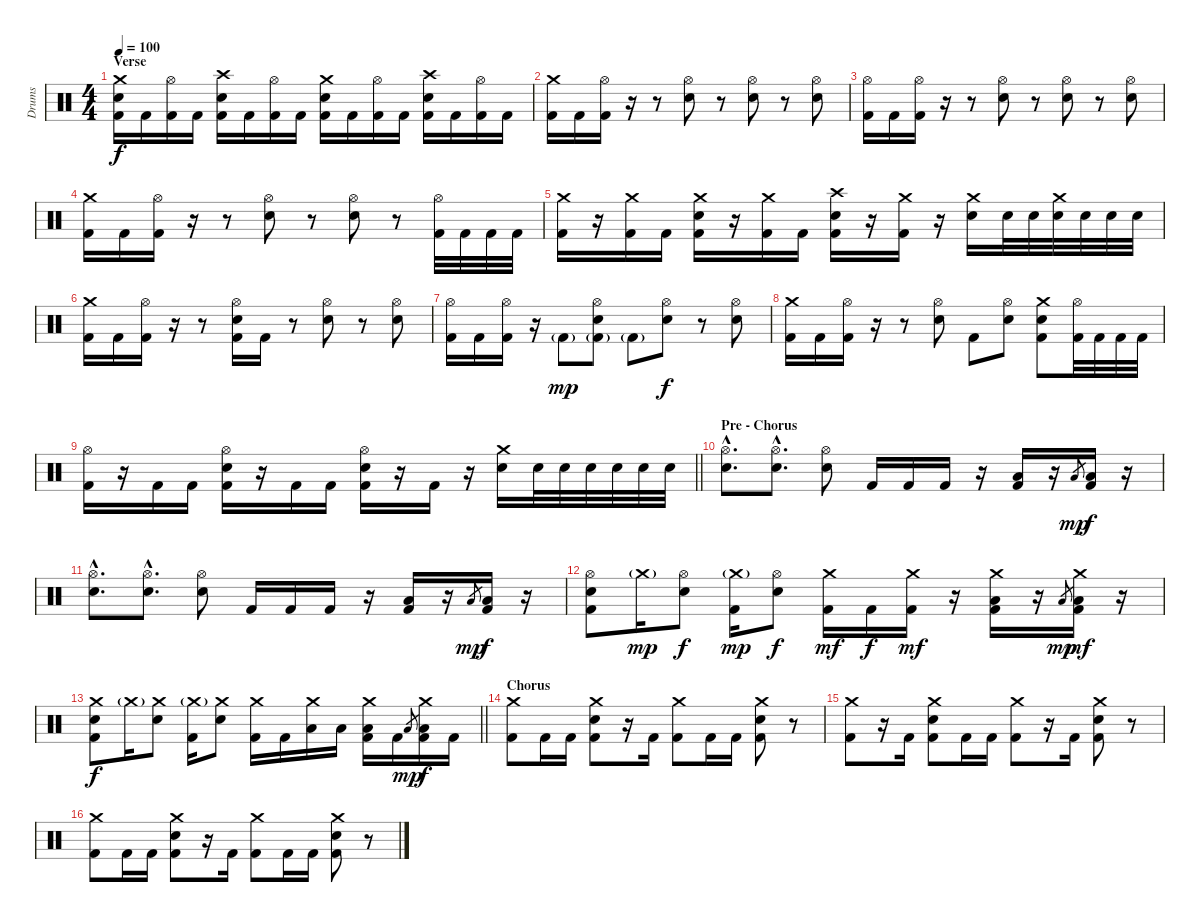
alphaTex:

\track ("Drums" "Drums") {instrument percussion}
\staff {score}
\articulation defaults
\ts (4 4)
\section ("" "Verse")
\tempo 100
\clef neutral
\ks c
("Crash medium (hit)" "Electric Snare (hit)" "Kick (hit) 2").16{dy f} "Kick (hit) 2".16 ("Hi-Hat (open)" "Kick (hit) 2").16 "Kick (hit) 2".16 ("Crash high (hit)" "Electric Snare (hit)" "Kick (hit) 2").16 "Kick (hit) 2".16 ("Hi-Hat (open)" "Kick (hit) 2").16 "Kick (hit) 2".16 ("Crash medium (hit)" "Electric Snare (hit)" "Kick (hit) 2").16 "Kick (hit) 2".16 ("Hi-Hat (open)" "Kick (hit) 2").16 "Kick (hit) 2".16 ("Crash high (hit)" "Electric Snare (hit)" "Kick (hit) 2").16 "Kick (hit) 2".16 ("Hi-Hat (open)" "Kick (hit) 2").16 "Kick (hit) 2".16 |
("Crash medium (hit)" "Kick (hit) 2").16 "Kick (hit) 2".16 ("Hi-Hat (open)" "Kick (hit) 2").16 r.16 r.8 ("Hi-Hat (open)" "Electric Snare (hit)").8 r.8 ("Hi-Hat (open)" "Electric Snare (hit)").8 r.8 ("Hi-Hat (open)" "Electric Snare (hit)").8 |
("Hi-Hat (open)" "Kick (hit) 2").16 "Kick (hit) 2".16 ("Hi-Hat (open)" "Kick (hit) 2").16 r.16 r.8 ("Hi-Hat (open)" "Electric Snare (hit)").8 r.8 ("Hi-Hat (open)" "Electric Snare (hit)").8 r.8 ("Hi-Hat (open)" "Electric Snare (hit)").8 |
("Crash medium (hit)" "Kick (hit) 2").16 "Kick (hit) 2".16 ("Hi-Hat (open)" "Kick (hit) 2").16 r.16 r.8 ("Hi-Hat (open)" "Electric Snare (hit)").8 r.8 ("Hi-Hat (open)" "Electric Snare (hit)").8 r.8 ("Hi-Hat (open)" "Kick (hit) 2").32 "Kick (hit) 2".32 "Kick (hit) 2".32 "Kick (hit) 2".32 |
("Crash medium (hit)" "Kick (hit) 2").16 r.16 ("Crash medium (hit)" "Kick (hit) 2").16 "Kick (hit) 2".16 ("Crash medium (hit)" "Electric Snare (hit)" "Kick (hit) 2").16 r.16 ("Crash medium (hit)" "Kick (hit) 2").16 "Kick (hit) 2".16 ("Crash high (hit)" "Electric Snare (hit)" "Kick (hit) 2").16 r.16 ("Crash medium (hit)" "Kick (hit) 2").16 r.16 ("Crash medium (hit)" "Electric Snare (hit)").16 "Electric Snare (hit)".32 "Electric Snare (hit)".32 ("Crash medium (hit)" "Electric Snare (hit)").32 "Electric Snare (hit)".32 "Electric Snare (hit)".32 "Electric Snare (hit)".32 |
("Crash medium (hit)" "Kick (hit) 2").16 "Kick (hit) 2".16 ("Hi-Hat (open)" "Kick (hit) 2").16 r.16 r.8 ("Hi-Hat (open)" "Electric Snare (hit)" "Kick (hit) 2").16 "Kick (hit) 2".16 r.8 ("Hi-Hat (open)" "Electric Snare (hit)").8 r.8 ("Hi-Hat (open)" "Electric Snare (hit)").8 |
("Hi-Hat (open)" "Kick (hit) 2").16 "Kick (hit) 2".16 ("Hi-Hat (open)" "Kick (hit) 2").16 r.16 "Kick (hit) 2"{g}.8{dy mp} ("Hi-Hat (open)" "Electric Snare (hit)" "Kick (hit) 2"{g}).8 "Kick (hit) 2"{g}.8 ("Hi-Hat (open)" "Electric Snare (hit)").8{dy f} r.8 ("Hi-Hat (open)" "Electric Snare (hit)").8 |
("Crash medium (hit)" "Kick (hit) 2").16 "Kick (hit) 2".16 ("Hi-Hat (open)" "Kick (hit) 2").16 r.16 r.8 ("Hi-Hat (open)" "Electric Snare (hit)").8 "Kick (hit) 2".8 ("Hi-Hat (open)" "Electric Snare (hit)").8 ("Crash medium (hit)" "Electric Snare (hit)" "Kick (hit) 2").8 ("Hi-Hat (open)" "Kick (hit) 2").32 "Kick (hit) 2".32 "Kick (hit) 2".32 "Kick (hit) 2".32 |
\barLineRight lightlight
("Hi-Hat (open)" "Kick (hit) 2").16 r.16 "Kick (hit) 2".16 "Kick (hit) 2".16 ("Hi-Hat (open)" "Electric Snare (hit)" "Kick (hit) 2").16 r.16 "Kick (hit) 2".16 "Kick (hit) 2".16 ("Hi-Hat (open)" "Electric Snare (hit)" "Kick (hit) 2").16 r.16 "Kick (hit) 2".16 r.16 ("Crash medium (hit)" "Electric Snare (hit)").16 "Electric Snare (hit)".32 "Electric Snare (hit)".32 "Electric Snare (hit)".32 "Electric Snare (hit)".32 "Electric Snare (hit)".32 "Electric Snare (hit)".32 |
\section ("" "Pre - Chorus")
("Hi-Hat (open)"{hac} "Electric Snare (hit)"{hac}).8{d} ("Hi-Hat (open)"{hac} "Electric Snare (hit)"{hac}).8{d} ("Hi-Hat (open)" "Electric Snare (hit)").8 "Kick (hit) 2".16 "Kick (hit) 2".16 "Kick (hit) 2".16 r.16 ("Low Tom (hit)" "Kick (hit) 2").16 r.16 "Low Floor Tom (hit)".8{gr dy mp} ("Low Floor Tom (hit)" "Kick (hit) 2").16{dy f} r.16 |
("Hi-Hat (open)"{hac} "Electric Snare (hit)"{hac}).8{d} ("Hi-Hat (open)"{hac} "Electric Snare (hit)"{hac}).8{d} ("Hi-Hat (open)" "Electric Snare (hit)").8 "Kick (hit) 2".16 "Kick (hit) 2".16 "Kick (hit) 2".16 r.16 ("Low Tom (hit)" "Kick (hit) 2").16 r.16 "Low Floor Tom (hit)".8{gr dy mp} ("Low Floor Tom (hit)" "Kick (hit) 2").16{dy f} r.16 |
("Hi-Hat (open)" "Electric Snare (hit)" "Kick (hit) 2").8 "Crash medium (hit)"{g}.16{dy mp} ("Hi-Hat (open)" "Electric Snare (hit)").8{dy f} ("Crash medium (hit)"{g} "Kick (hit) 2").16{dy mp} ("Hi-Hat (open)" "Electric Snare (hit)").8{dy f} ("Crash medium (hit)" "Kick (hit) 2").16{dy mf} "Kick (hit) 2".16{dy f} ("Crash medium (hit)" "Kick (hit) 2").16{dy mf} r.16 ("Crash medium (hit)" "Low Tom (hit)" "Kick (hit) 2").16 r.16 "Low Floor Tom (hit)".8{gr dy mp} ("Crash medium (hit)" "Low Floor Tom (hit)" "Kick (hit) 2").16{dy mf} r.16 |
\barLineRight lightlight
("Crash medium (hit)" "Electric Snare (hit)" "Kick (hit) 2").8{dy f} "Crash medium (hit)"{g}.16 ("Crash medium (hit)" "Electric Snare (hit)").8 ("Crash medium (hit)"{g} "Kick (hit) 2").16 ("Crash medium (hit)" "Electric Snare (hit)").8 ("Crash medium (hit)" "Kick (hit) 2").16 "Kick (hit) 2".16 ("Crash medium (hit)" "Low Tom (hit)").16 "Low Tom (hit)".16 ("Crash medium (hit)" "Low Tom (hit)" "Kick (hit) 2").16 "Kick (hit) 2".16 "Low Floor Tom (hit)".8{gr dy mp} ("Crash medium (hit)" "Low Floor Tom (hit)" "Kick (hit) 2").16{dy f} "Kick (hit) 2".16 |
\section ("" "Chorus")
("Crash medium (hit)" "Kick (hit) 2").8 "Kick (hit) 2".16 "Kick (hit) 2".16 ("Crash medium (hit)" "Electric Snare (hit)" "Kick (hit) 2").8 r.16 "Kick (hit) 2".16 ("Crash medium (hit)" "Kick (hit) 2").8 "Kick (hit) 2".16 "Kick (hit) 2".16 ("Crash medium (hit)" "Electric Snare (hit)" "Kick (hit) 2").8 r.8 |
("Crash medium (hit)" "Kick (hit) 2").8 r.16 "Kick (hit) 2".16 ("Crash medium (hit)" "Electric Snare (hit)" "Kick (hit) 2").8 "Kick (hit) 2".16 "Kick (hit) 2".16 ("Crash medium (hit)" "Kick (hit) 2").8 r.16 "Kick (hit) 2".16 ("Crash medium (hit)" "Electric Snare (hit)" "Kick (hit) 2").8 r.8 |
("Crash medium (hit)" "Kick (hit) 2").8 "Kick (hit) 2".16 "Kick (hit) 2".16 ("Crash medium (hit)" "Electric Snare (hit)" "Kick (hit) 2").8 r.16 "Kick (hit) 2".16 ("Crash medium (hit)" "Kick (hit) 2").8 "Kick (hit) 2".16 "Kick (hit) 2".16 ("Crash medium (hit)" "Electric Snare (hit)" "Kick (hit) 2").8 r.8
